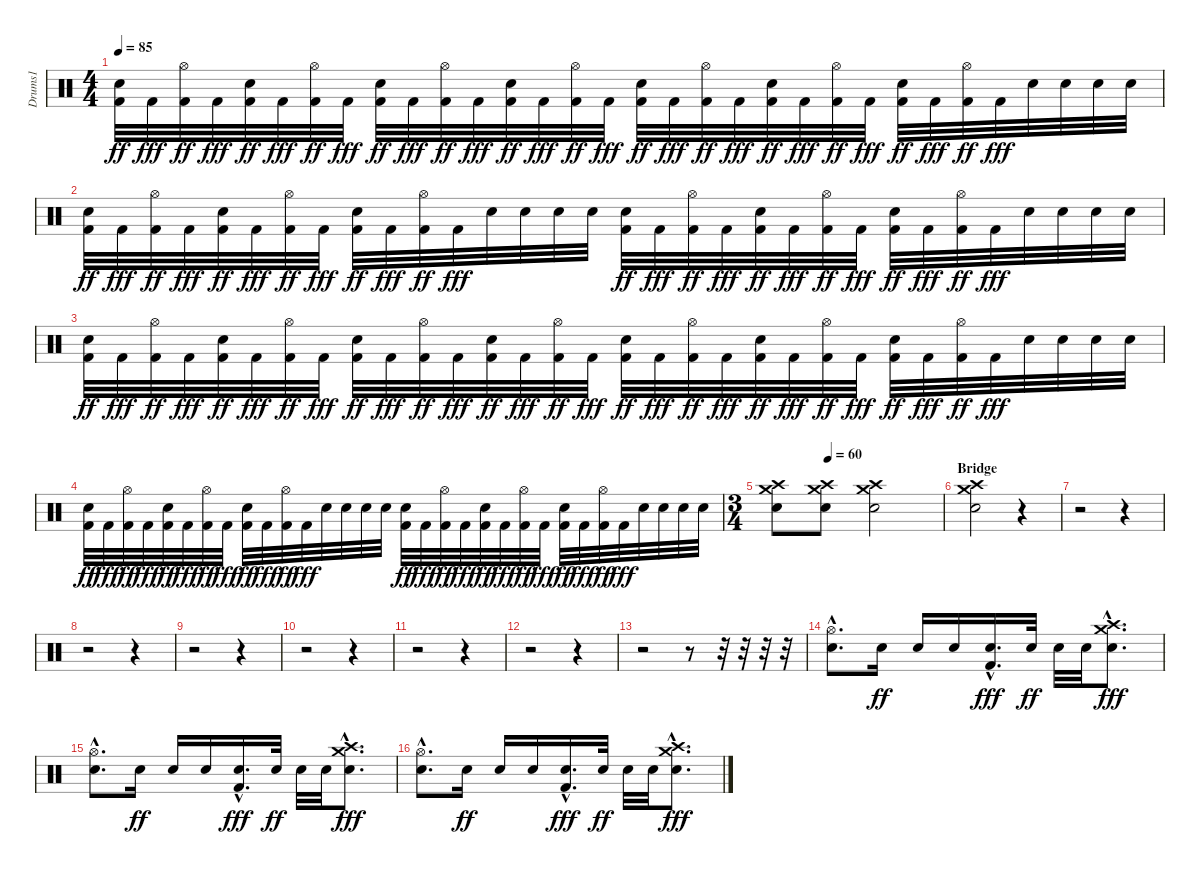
\track ("Drums1" "Drums1") {instrument percussion}
\staff {score}
\articulation defaults
\ts (4 4)
\tempo 85
\clef neutral
\ks c
("Kick (hit) 2" "Electric Snare (hit)").32{dy ff} "Kick (hit) 2".32{dy fff} ("Kick (hit) 2" "Hi-Hat (open)").32{dy ff} "Kick (hit) 2".32{dy fff} ("Kick (hit) 2" "Electric Snare (hit)").32{dy ff} "Kick (hit) 2".32{dy fff} ("Kick (hit) 2" "Hi-Hat (open)").32{dy ff} "Kick (hit) 2".32{dy fff} ("Kick (hit) 2" "Electric Snare (hit)").32{dy ff} "Kick (hit) 2".32{dy fff} ("Kick (hit) 2" "Hi-Hat (open)").32{dy ff} "Kick (hit) 2".32{dy fff} ("Kick (hit) 2" "Electric Snare (hit)").32{dy ff} "Kick (hit) 2".32{dy fff} ("Kick (hit) 2" "Hi-Hat (open)").32{dy ff} "Kick (hit) 2".32{dy fff} ("Kick (hit) 2" "Electric Snare (hit)").32{dy ff} "Kick (hit) 2".32{dy fff} ("Kick (hit) 2" "Hi-Hat (open)").32{dy ff} "Kick (hit) 2".32{dy fff} ("Kick (hit) 2" "Electric Snare (hit)").32{dy ff} "Kick (hit) 2".32{dy fff} ("Kick (hit) 2" "Hi-Hat (open)").32{dy ff} "Kick (hit) 2".32{dy fff} ("Kick (hit) 2" "Electric Snare (hit)").32{dy ff} "Kick (hit) 2".32{dy fff} ("Kick (hit) 2" "Hi-Hat (open)").32{dy ff} "Kick (hit) 2".32{dy fff} "Electric Snare (hit)".32 "Electric Snare (hit)".32 "Electric Snare (hit)".32 "Electric Snare (hit)".32 |
("Kick (hit) 2" "Electric Snare (hit)").32{dy ff} "Kick (hit) 2".32{dy fff} ("Kick (hit) 2" "Hi-Hat (open)").32{dy ff} "Kick (hit) 2".32{dy fff} ("Kick (hit) 2" "Electric Snare (hit)").32{dy ff} "Kick (hit) 2".32{dy fff} ("Kick (hit) 2" "Hi-Hat (open)").32{dy ff} "Kick (hit) 2".32{dy fff} ("Kick (hit) 2" "Electric Snare (hit)").32{dy ff} "Kick (hit) 2".32{dy fff} ("Kick (hit) 2" "Hi-Hat (open)").32{dy ff} "Kick (hit) 2".32{dy fff} "Electric Snare (hit)".32 "Electric Snare (hit)".32 "Electric Snare (hit)".32 "Electric Snare (hit)".32 ("Kick (hit) 2" "Electric Snare (hit)").32{dy ff} "Kick (hit) 2".32{dy fff} ("Kick (hit) 2" "Hi-Hat (open)").32{dy ff} "Kick (hit) 2".32{dy fff} ("Kick (hit) 2" "Electric Snare (hit)").32{dy ff} "Kick (hit) 2".32{dy fff} ("Kick (hit) 2" "Hi-Hat (open)").32{dy ff} "Kick (hit) 2".32{dy fff} ("Kick (hit) 2" "Electric Snare (hit)").32{dy ff} "Kick (hit) 2".32{dy fff} ("Kick (hit) 2" "Hi-Hat (open)").32{dy ff} "Kick (hit) 2".32{dy fff} "Electric Snare (hit)".32 "Electric Snare (hit)".32 "Electric Snare (hit)".32 "Electric Snare (hit)".32 |
("Kick (hit) 2" "Electric Snare (hit)").32{dy ff} "Kick (hit) 2".32{dy fff} ("Kick (hit) 2" "Hi-Hat (open)").32{dy ff} "Kick (hit) 2".32{dy fff} ("Kick (hit) 2" "Electric Snare (hit)").32{dy ff} "Kick (hit) 2".32{dy fff} ("Kick (hit) 2" "Hi-Hat (open)").32{dy ff} "Kick (hit) 2".32{dy fff} ("Kick (hit) 2" "Electric Snare (hit)").32{dy ff} "Kick (hit) 2".32{dy fff} ("Kick (hit) 2" "Hi-Hat (open)").32{dy ff} "Kick (hit) 2".32{dy fff} ("Kick (hit) 2" "Electric Snare (hit)").32{dy ff} "Kick (hit) 2".32{dy fff} ("Kick (hit) 2" "Hi-Hat (open)").32{dy ff} "Kick (hit) 2".32{dy fff} ("Kick (hit) 2" "Electric Snare (hit)").32{dy ff} "Kick (hit) 2".32{dy fff} ("Kick (hit) 2" "Hi-Hat (open)").32{dy ff} "Kick (hit) 2".32{dy fff} ("Kick (hit) 2" "Electric Snare (hit)").32{dy ff} "Kick (hit) 2".32{dy fff} ("Kick (hit) 2" "Hi-Hat (open)").32{dy ff} "Kick (hit) 2".32{dy fff} ("Kick (hit) 2" "Electric Snare (hit)").32{dy ff} "Kick (hit) 2".32{dy fff} ("Kick (hit) 2" "Hi-Hat (open)").32{dy ff} "Kick (hit) 2".32{dy fff} "Electric Snare (hit)".32 "Electric Snare (hit)".32 "Electric Snare (hit)".32 "Electric Snare (hit)".32 |
("Kick (hit) 2" "Electric Snare (hit)").32{dy ff} "Kick (hit) 2".32{dy fff} ("Kick (hit) 2" "Hi-Hat (open)").32{dy ff} "Kick (hit) 2".32{dy fff} ("Kick (hit) 2" "Electric Snare (hit)").32{dy ff} "Kick (hit) 2".32{dy fff} ("Kick (hit) 2" "Hi-Hat (open)").32{dy ff} "Kick (hit) 2".32{dy fff} ("Kick (hit) 2" "Electric Snare (hit)").32{dy ff} "Kick (hit) 2".32{dy fff} ("Kick (hit) 2" "Hi-Hat (open)").32{dy ff} "Kick (hit) 2".32{dy fff} "Electric Snare (hit)".32 "Electric Snare (hit)".32 "Electric Snare (hit)".32 "Electric Snare (hit)".32 ("Kick (hit) 2" "Electric Snare (hit)").32{dy ff} "Kick (hit) 2".32{dy fff} ("Kick (hit) 2" "Hi-Hat (open)").32{dy ff} "Kick (hit) 2".32{dy fff} ("Kick (hit) 2" "Electric Snare (hit)").32{dy ff} "Kick (hit) 2".32{dy fff} ("Kick (hit) 2" "Hi-Hat (open)").32{dy ff} "Kick (hit) 2".32{dy fff} ("Kick (hit) 2" "Electric Snare (hit)").32{dy ff} "Kick (hit) 2".32{dy fff} ("Kick (hit) 2" "Hi-Hat (open)").32{dy ff} "Kick (hit) 2".32{dy fff} "Electric Snare (hit)".32 "Electric Snare (hit)".32 "Electric Snare (hit)".32 "Electric Snare (hit)".32 |
\ts (3 4)
\tempo (60 0.3333333333333333)
("Electric Snare (hit)" "Crash medium (hit)" "Crash high (hit)").8 ("Crash high (hit)" "Crash medium (hit)" "Electric Snare (hit)").8 ("Electric Snare (hit)" "Crash medium (hit)" "Crash high (hit)").2 |
\section ("" "Bridge")
("Crash high (hit)" "Crash medium (hit)" "Electric Snare (hit)").2 r.4 |
r.2 r.4 |
r.2 r.4 |
r.2 r.4 |
r.2 r.4 |
r.2 r.4 |
r.2 r.4 |
r.2 r.8 r.32 r.32 r.32 r.32 |
("Hi-Hat (open)"{hac} "Electric Snare (hit)"{hac}).8{d} "Electric Snare (hit)".16{dy ff} "Electric Snare (hit)".16 "Electric Snare (hit)".16 ("Kick (hit) 2"{hac} "Electric Snare (hit)"{hac}).16{d dy fff} "Electric Snare (hit)".32{dy ff} "Electric Snare (hit)".32 "Electric Snare (hit)".32 ("Crash high (hit)"{hac} "Crash medium (hit)"{hac} "Electric Snare (hit)"{hac}).8{d dy fff} |
("Hi-Hat (open)"{hac} "Electric Snare (hit)"{hac}).8{d} "Electric Snare (hit)".16{dy ff} "Electric Snare (hit)".16 "Electric Snare (hit)".16 ("Kick (hit) 2"{hac} "Electric Snare (hit)"{hac}).16{d dy fff} "Electric Snare (hit)".32{dy ff} "Electric Snare (hit)".32 "Electric Snare (hit)".32 ("Crash high (hit)"{hac} "Crash medium (hit)"{hac} "Electric Snare (hit)"{hac}).8{d dy fff} |
("Hi-Hat (open)"{hac} "Electric Snare (hit)"{hac}).8{d} "Electric Snare (hit)".16{dy ff} "Electric Snare (hit)".16 "Electric Snare (hit)".16 ("Kick (hit) 2"{hac} "Electric Snare (hit)"{hac}).16{d dy fff} "Electric Snare (hit)".32{dy ff} "Electric Snare (hit)".32 "Electric Snare (hit)".32 ("Crash high (hit)"{hac} "Crash medium (hit)"{hac} "Electric Snare (hit)"{hac}).8{d dy fff}
